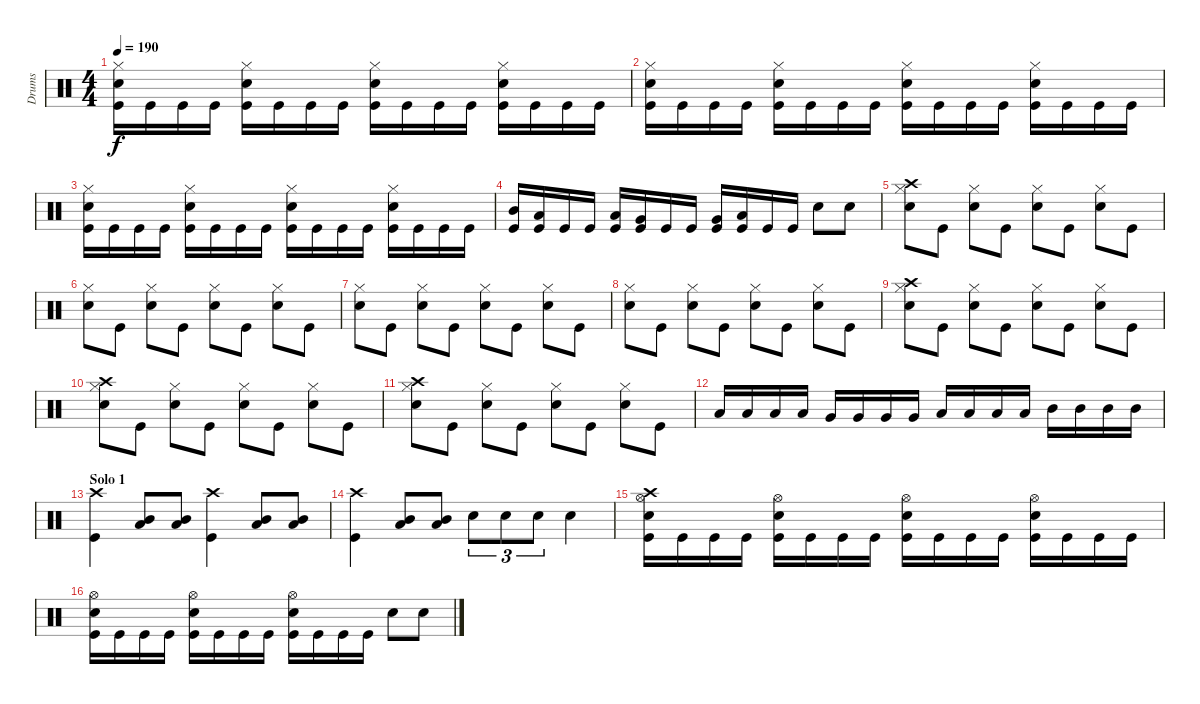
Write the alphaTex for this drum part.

\track ("Drums" "Drums") {instrument percussion}
\staff {score}
\articulation defaults
\ts (4 4)
\tempo 190
\clef neutral
\ks c
("Hi-Hat (closed)" "Snare (hit) 2" "Kick (hit)").16{dy f} "Kick (hit)".16 "Kick (hit)".16 "Kick (hit)".16 ("Hi-Hat (closed)" "Snare (hit) 2" "Kick (hit)").16 "Kick (hit)".16 "Kick (hit)".16 "Kick (hit)".16 ("Hi-Hat (closed)" "Snare (hit) 2" "Kick (hit)").16 "Kick (hit)".16 "Kick (hit)".16 "Kick (hit)".16 ("Hi-Hat (closed)" "Snare (hit) 2" "Kick (hit)").16 "Kick (hit)".16 "Kick (hit)".16 "Kick (hit)".16 |
("Hi-Hat (closed)" "Snare (hit) 2" "Kick (hit)").16 "Kick (hit)".16 "Kick (hit)".16 "Kick (hit)".16 ("Hi-Hat (closed)" "Snare (hit) 2" "Kick (hit)").16 "Kick (hit)".16 "Kick (hit)".16 "Kick (hit)".16 ("Hi-Hat (closed)" "Snare (hit) 2" "Kick (hit)").16 "Kick (hit)".16 "Kick (hit)".16 "Kick (hit)".16 ("Hi-Hat (closed)" "Snare (hit) 2" "Kick (hit)").16 "Kick (hit)".16 "Kick (hit)".16 "Kick (hit)".16 |
("Hi-Hat (closed)" "Snare (hit) 2" "Kick (hit)").16 "Kick (hit)".16 "Kick (hit)".16 "Kick (hit)".16 ("Hi-Hat (closed)" "Snare (hit) 2" "Kick (hit)").16 "Kick (hit)".16 "Kick (hit)".16 "Kick (hit)".16 ("Hi-Hat (closed)" "Snare (hit) 2" "Kick (hit)").16 "Kick (hit)".16 "Kick (hit)".16 "Kick (hit)".16 ("Hi-Hat (closed)" "Snare (hit) 2" "Kick (hit)").16 "Kick (hit)".16 "Kick (hit)".16 "Kick (hit)".16 |
("Mid Tom (hit)" "Kick (hit)").16 ("Low Tom (hit)" "Kick (hit)").16 "Kick (hit)".16 "Kick (hit)".16 ("Low Tom (hit)" "Kick (hit)").16 ("Very Low Tom (hit)" "Kick (hit)").16 "Kick (hit)".16 "Kick (hit)".16 ("Very Low Tom (hit)" "Kick (hit)").16 ("Low Floor Tom (hit)" "Kick (hit)").16 "Kick (hit)".16 "Kick (hit)".16 "Snare (hit) 2".8 "Snare (hit) 2".8 |
("Crash high (hit)" "Hi-Hat (closed)" "Snare (hit) 2").8 "Kick (hit)".8 ("Hi-Hat (closed)" "Snare (hit) 2").8 "Kick (hit)".8 ("Hi-Hat (closed)" "Snare (hit) 2").8 "Kick (hit)".8 ("Hi-Hat (closed)" "Snare (hit) 2").8 "Kick (hit)".8 |
("Hi-Hat (closed)" "Snare (hit) 2").8 "Kick (hit)".8 ("Hi-Hat (closed)" "Snare (hit) 2").8 "Kick (hit)".8 ("Hi-Hat (closed)" "Snare (hit) 2").8 "Kick (hit)".8 ("Hi-Hat (closed)" "Snare (hit) 2").8 "Kick (hit)".8 |
("Hi-Hat (closed)" "Snare (hit) 2").8 "Kick (hit)".8 ("Hi-Hat (closed)" "Snare (hit) 2").8 "Kick (hit)".8 ("Hi-Hat (closed)" "Snare (hit) 2").8 "Kick (hit)".8 ("Hi-Hat (closed)" "Snare (hit) 2").8 "Kick (hit)".8 |
("Hi-Hat (closed)" "Snare (hit) 2").8 "Kick (hit)".8 ("Hi-Hat (closed)" "Snare (hit) 2").8 "Kick (hit)".8 ("Hi-Hat (closed)" "Snare (hit) 2").8 "Kick (hit)".8 ("Hi-Hat (closed)" "Snare (hit) 2").8 "Kick (hit)".8 |
("Crash high (hit)" "Hi-Hat (closed)" "Snare (hit) 2").8 "Kick (hit)".8 ("Hi-Hat (closed)" "Snare (hit) 2").8 "Kick (hit)".8 ("Hi-Hat (closed)" "Snare (hit) 2").8 "Kick (hit)".8 ("Hi-Hat (closed)" "Snare (hit) 2").8 "Kick (hit)".8 |
("Crash high (hit)" "Hi-Hat (closed)" "Snare (hit) 2").8 "Kick (hit)".8 ("Hi-Hat (closed)" "Snare (hit) 2").8 "Kick (hit)".8 ("Hi-Hat (closed)" "Snare (hit) 2").8 "Kick (hit)".8 ("Hi-Hat (closed)" "Snare (hit) 2").8 "Kick (hit)".8 |
("Crash high (hit)" "Hi-Hat (closed)" "Snare (hit) 2").8 "Kick (hit)".8 ("Hi-Hat (closed)" "Snare (hit) 2").8 "Kick (hit)".8 ("Hi-Hat (closed)" "Snare (hit) 2").8 "Kick (hit)".8 ("Hi-Hat (closed)" "Snare (hit) 2").8 "Kick (hit)".8 |
"Low Floor Tom (hit)".16 "Low Floor Tom (hit)".16 "Low Floor Tom (hit)".16 "Low Floor Tom (hit)".16 "Very Low Tom (hit)".16 "Very Low Tom (hit)".16 "Very Low Tom (hit)".16 "Very Low Tom (hit)".16 "Low Tom (hit)".16 "Low Tom (hit)".16 "Low Tom (hit)".16 "Low Tom (hit)".16 "Mid Tom (hit)".16 "Mid Tom (hit)".16 "Mid Tom (hit)".16 "Mid Tom (hit)".16 |
\section ("" "Solo 1")
("Crash high (hit)" "Kick (hit)").4 ("Mid Tom (hit)" "Low Tom (hit)").8 ("Mid Tom (hit)" "Low Tom (hit)").8 ("Crash high (hit)" "Kick (hit)").4 ("Mid Tom (hit)" "Low Tom (hit)").8 ("Mid Tom (hit)" "Low Tom (hit)").8 |
("Crash high (hit)" "Kick (hit)").4 ("Mid Tom (hit)" "Low Tom (hit)").8 ("Mid Tom (hit)" "Low Tom (hit)").8 "Snare (hit) 2".8{tu (3 2)} "Snare (hit) 2".8{tu (3 2)} "Snare (hit) 2".8{tu (3 2)} "Snare (hit) 2".4 |
("Crash high (hit)" "Hi-Hat (open)" "Snare (hit) 2" "Kick (hit)").16 "Kick (hit)".16 "Kick (hit)".16 "Kick (hit)".16 ("Hi-Hat (open)" "Snare (hit) 2" "Kick (hit)").16 "Kick (hit)".16 "Kick (hit)".16 "Kick (hit)".16 ("Hi-Hat (open)" "Snare (hit) 2" "Kick (hit)").16 "Kick (hit)".16 "Kick (hit)".16 "Kick (hit)".16 ("Hi-Hat (open)" "Snare (hit) 2" "Kick (hit)").16 "Kick (hit)".16 "Kick (hit)".16 "Kick (hit)".16 |
("Hi-Hat (open)" "Snare (hit) 2" "Kick (hit)").16 "Kick (hit)".16 "Kick (hit)".16 "Kick (hit)".16 ("Hi-Hat (open)" "Snare (hit) 2" "Kick (hit)").16 "Kick (hit)".16 "Kick (hit)".16 "Kick (hit)".16 ("Hi-Hat (open)" "Snare (hit) 2" "Kick (hit)").16 "Kick (hit)".16 "Kick (hit)".16 "Kick (hit)".16 "Snare (hit) 2".8 "Snare (hit) 2".8
